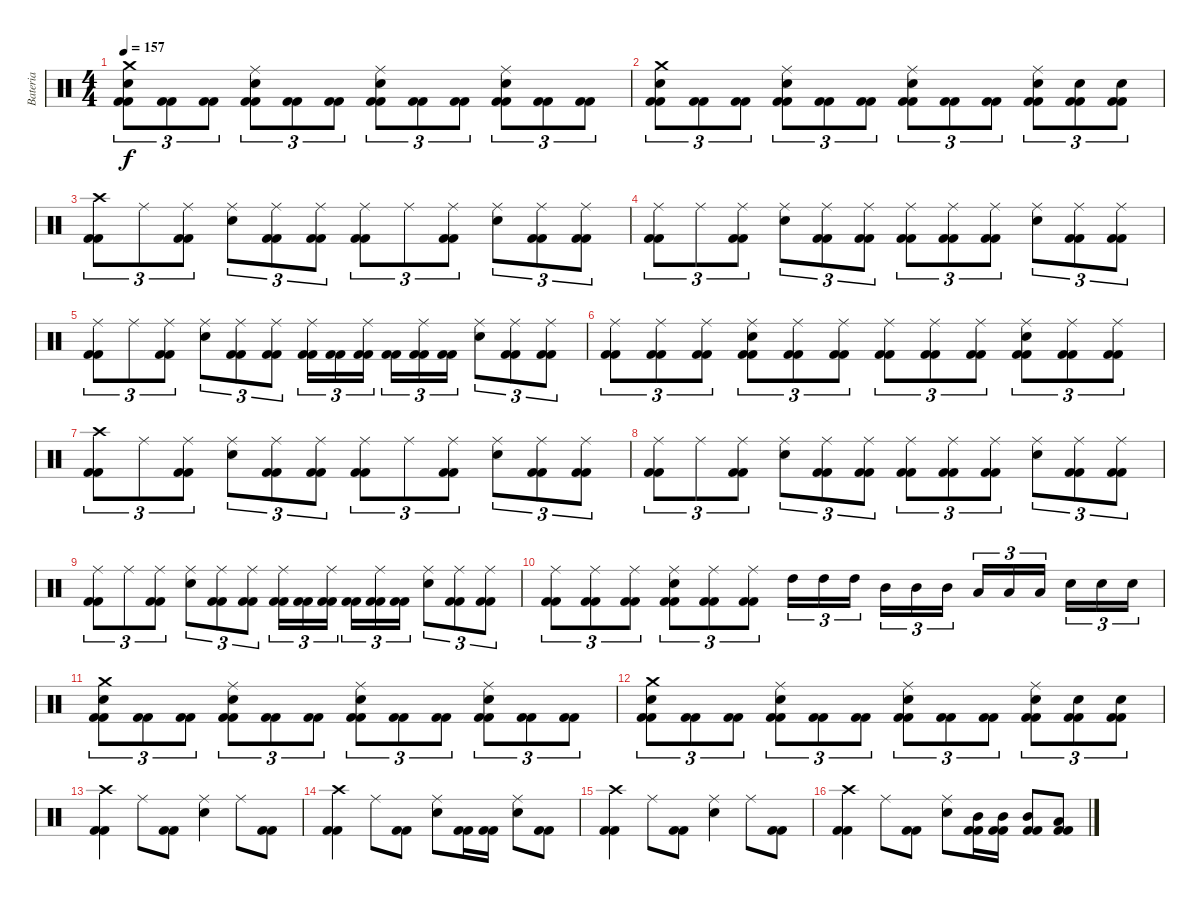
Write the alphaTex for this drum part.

\track ("Bateria" "Bateria") {instrument percussion}
\staff {score}
\articulation defaults
\ts (4 4)
\tempo 157
\clef neutral
\ks c
("Kick (hit) 2" "Kick (hit) 2" "Snare (hit) 2" "Crash medium (hit)").8{tu (3 2) dy f} ("Kick (hit) 2" "Kick (hit) 2").8{tu (3 2)} ("Kick (hit) 2" "Kick (hit) 2").8{tu (3 2)} ("Kick (hit) 2" "Kick (hit) 2" "Snare (hit) 2" "Ride (middle)").8{tu (3 2)} ("Kick (hit) 2" "Kick (hit) 2").8{tu (3 2)} ("Kick (hit) 2" "Kick (hit) 2").8{tu (3 2)} ("Kick (hit) 2" "Kick (hit) 2" "Snare (hit) 2" "Ride (middle)").8{tu (3 2)} ("Kick (hit) 2" "Kick (hit) 2").8{tu (3 2)} ("Kick (hit) 2" "Kick (hit) 2").8{tu (3 2)} ("Kick (hit) 2" "Kick (hit) 2" "Snare (hit) 2" "Ride (middle)").8{tu (3 2)} ("Kick (hit) 2" "Kick (hit) 2").8{tu (3 2)} ("Kick (hit) 2" "Kick (hit) 2").8{tu (3 2)} |
("Kick (hit) 2" "Kick (hit) 2" "Snare (hit) 2" "Crash medium (hit)").8{tu (3 2)} ("Kick (hit) 2" "Kick (hit) 2").8{tu (3 2)} ("Kick (hit) 2" "Kick (hit) 2").8{tu (3 2)} ("Kick (hit) 2" "Kick (hit) 2" "Snare (hit) 2" "Ride (middle)").8{tu (3 2)} ("Kick (hit) 2" "Kick (hit) 2").8{tu (3 2)} ("Kick (hit) 2" "Kick (hit) 2").8{tu (3 2)} ("Kick (hit) 2" "Kick (hit) 2" "Snare (hit) 2" "Ride (middle)").8{tu (3 2)} ("Kick (hit) 2" "Kick (hit) 2").8{tu (3 2)} ("Kick (hit) 2" "Kick (hit) 2").8{tu (3 2)} ("Kick (hit) 2" "Kick (hit) 2" "Snare (hit) 2" "Ride (middle)").8{tu (3 2)} ("Kick (hit) 2" "Kick (hit) 2" "Snare (hit) 2").8{tu (3 2)} ("Kick (hit) 2" "Kick (hit) 2" "Snare (hit) 2").8{tu (3 2)} |
("Kick (hit) 2" "Crash high (hit)" "Kick (hit) 2").8{tu (3 2)} "Ride (middle)".8{tu (3 2)} ("Kick (hit) 2" "Ride (middle)" "Kick (hit) 2").8{tu (3 2)} ("Ride (middle)" "Snare (hit) 2").8{tu (3 2)} ("Kick (hit) 2" "Ride (middle)" "Kick (hit) 2").8{tu (3 2)} ("Kick (hit) 2" "Ride (middle)" "Kick (hit) 2").8{tu (3 2)} ("Kick (hit) 2" "Ride (middle)" "Kick (hit) 2").8{tu (3 2)} "Ride (middle)".8{tu (3 2)} ("Kick (hit) 2" "Ride (middle)" "Kick (hit) 2").8{tu (3 2)} ("Ride (middle)" "Snare (hit) 2").8{tu (3 2)} ("Kick (hit) 2" "Ride (middle)" "Kick (hit) 2").8{tu (3 2)} ("Kick (hit) 2" "Ride (middle)" "Kick (hit) 2").8{tu (3 2)} |
("Kick (hit) 2" "Ride (middle)" "Kick (hit) 2").8{tu (3 2)} "Ride (middle)".8{tu (3 2)} ("Kick (hit) 2" "Ride (middle)" "Kick (hit) 2").8{tu (3 2)} ("Ride (middle)" "Snare (hit) 2").8{tu (3 2)} ("Kick (hit) 2" "Ride (middle)" "Kick (hit) 2").8{tu (3 2)} ("Kick (hit) 2" "Ride (middle)" "Kick (hit) 2").8{tu (3 2)} ("Kick (hit) 2" "Ride (middle)" "Kick (hit) 2").8{tu (3 2)} ("Kick (hit) 2" "Ride (middle)" "Kick (hit) 2").8{tu (3 2)} ("Kick (hit) 2" "Ride (middle)" "Kick (hit) 2").8{tu (3 2)} ("Ride (middle)" "Snare (hit) 2").8{tu (3 2)} ("Kick (hit) 2" "Ride (middle)" "Kick (hit) 2").8{tu (3 2)} ("Kick (hit) 2" "Ride (middle)" "Kick (hit) 2").8{tu (3 2)} |
("Kick (hit) 2" "Ride (middle)" "Kick (hit) 2").8{tu (3 2)} "Ride (middle)".8{tu (3 2)} ("Kick (hit) 2" "Ride (middle)" "Kick (hit) 2").8{tu (3 2)} ("Ride (middle)" "Snare (hit) 2").8{tu (3 2)} ("Kick (hit) 2" "Ride (middle)" "Kick (hit) 2").8{tu (3 2)} ("Kick (hit) 2" "Ride (middle)" "Kick (hit) 2").8{tu (3 2)} ("Kick (hit) 2" "Ride (middle)" "Kick (hit) 2").16{tu (3 2)} ("Kick (hit) 2" "Kick (hit) 2").16{tu (3 2)} ("Kick (hit) 2" "Ride (middle)" "Kick (hit) 2").16{tu (3 2)} ("Kick (hit) 2" "Kick (hit) 2").16{tu (3 2)} ("Kick (hit) 2" "Ride (middle)" "Kick (hit) 2").16{tu (3 2)} ("Kick (hit) 2" "Kick (hit) 2").16{tu (3 2)} ("Ride (middle)" "Snare (hit) 2").8{tu (3 2)} ("Kick (hit) 2" "Ride (middle)" "Kick (hit) 2").8{tu (3 2)} ("Kick (hit) 2" "Ride (middle)" "Kick (hit) 2").8{tu (3 2)} |
("Kick (hit) 2" "Ride (middle)" "Kick (hit) 2").8{tu (3 2)} ("Kick (hit) 2" "Ride (middle)" "Kick (hit) 2").8{tu (3 2)} ("Kick (hit) 2" "Ride (middle)" "Kick (hit) 2").8{tu (3 2)} ("Kick (hit) 2" "Ride (middle)" "Snare (hit) 2" "Kick (hit) 2").8{tu (3 2)} ("Kick (hit) 2" "Ride (middle)" "Kick (hit) 2").8{tu (3 2)} ("Kick (hit) 2" "Ride (middle)" "Kick (hit) 2").8{tu (3 2)} ("Kick (hit) 2" "Ride (middle)" "Kick (hit) 2").8{tu (3 2)} ("Kick (hit) 2" "Ride (middle)" "Kick (hit) 2").8{tu (3 2)} ("Kick (hit) 2" "Ride (middle)" "Kick (hit) 2").8{tu (3 2)} ("Kick (hit) 2" "Ride (middle)" "Snare (hit) 2" "Kick (hit) 2").8{tu (3 2)} ("Kick (hit) 2" "Ride (middle)" "Kick (hit) 2").8{tu (3 2)} ("Kick (hit) 2" "Ride (middle)" "Kick (hit) 2").8{tu (3 2)} |
("Kick (hit) 2" "Crash high (hit)" "Kick (hit) 2").8{tu (3 2)} "Ride (middle)".8{tu (3 2)} ("Kick (hit) 2" "Ride (middle)" "Kick (hit) 2").8{tu (3 2)} ("Ride (middle)" "Snare (hit) 2").8{tu (3 2)} ("Kick (hit) 2" "Ride (middle)" "Kick (hit) 2").8{tu (3 2)} ("Kick (hit) 2" "Ride (middle)" "Kick (hit) 2").8{tu (3 2)} ("Kick (hit) 2" "Ride (middle)" "Kick (hit) 2").8{tu (3 2)} "Ride (middle)".8{tu (3 2)} ("Kick (hit) 2" "Ride (middle)" "Kick (hit) 2").8{tu (3 2)} ("Ride (middle)" "Snare (hit) 2").8{tu (3 2)} ("Kick (hit) 2" "Ride (middle)" "Kick (hit) 2").8{tu (3 2)} ("Kick (hit) 2" "Ride (middle)" "Kick (hit) 2").8{tu (3 2)} |
("Kick (hit) 2" "Ride (middle)" "Kick (hit) 2").8{tu (3 2)} "Ride (middle)".8{tu (3 2)} ("Kick (hit) 2" "Ride (middle)" "Kick (hit) 2").8{tu (3 2)} ("Ride (middle)" "Snare (hit) 2").8{tu (3 2)} ("Kick (hit) 2" "Ride (middle)" "Kick (hit) 2").8{tu (3 2)} ("Kick (hit) 2" "Ride (middle)" "Kick (hit) 2").8{tu (3 2)} ("Kick (hit) 2" "Ride (middle)" "Kick (hit) 2").8{tu (3 2)} ("Kick (hit) 2" "Ride (middle)" "Kick (hit) 2").8{tu (3 2)} ("Kick (hit) 2" "Ride (middle)" "Kick (hit) 2").8{tu (3 2)} ("Ride (middle)" "Snare (hit) 2").8{tu (3 2)} ("Kick (hit) 2" "Ride (middle)" "Kick (hit) 2").8{tu (3 2)} ("Kick (hit) 2" "Ride (middle)" "Kick (hit) 2").8{tu (3 2)} |
("Kick (hit) 2" "Ride (middle)" "Kick (hit) 2").8{tu (3 2)} "Ride (middle)".8{tu (3 2)} ("Kick (hit) 2" "Ride (middle)" "Kick (hit) 2").8{tu (3 2)} ("Ride (middle)" "Snare (hit) 2").8{tu (3 2)} ("Kick (hit) 2" "Ride (middle)" "Kick (hit) 2").8{tu (3 2)} ("Kick (hit) 2" "Ride (middle)" "Kick (hit) 2").8{tu (3 2)} ("Kick (hit) 2" "Ride (middle)" "Kick (hit) 2").16{tu (3 2)} ("Kick (hit) 2" "Kick (hit) 2").16{tu (3 2)} ("Kick (hit) 2" "Ride (middle)" "Kick (hit) 2").16{tu (3 2)} ("Kick (hit) 2" "Kick (hit) 2").16{tu (3 2)} ("Kick (hit) 2" "Ride (middle)" "Kick (hit) 2").16{tu (3 2)} ("Kick (hit) 2" "Kick (hit) 2").16{tu (3 2)} ("Ride (middle)" "Snare (hit) 2").8{tu (3 2)} ("Kick (hit) 2" "Ride (middle)" "Kick (hit) 2").8{tu (3 2)} ("Kick (hit) 2" "Ride (middle)" "Kick (hit) 2").8{tu (3 2)} |
("Kick (hit) 2" "Ride (middle)" "Kick (hit) 2").8{tu (3 2)} ("Kick (hit) 2" "Ride (middle)" "Kick (hit) 2").8{tu (3 2)} ("Kick (hit) 2" "Ride (middle)" "Kick (hit) 2").8{tu (3 2)} ("Kick (hit) 2" "Ride (middle)" "Snare (hit) 2" "Kick (hit) 2").8{tu (3 2)} ("Kick (hit) 2" "Ride (middle)" "Kick (hit) 2").8{tu (3 2)} ("Kick (hit) 2" "Ride (middle)" "Kick (hit) 2").8{tu (3 2)} "High Tom (hit)".16{tu (3 2)} "High Tom (hit)".16{tu (3 2)} "High Tom (hit)".16{tu (3 2)} "Mid Tom (hit)".16{tu (3 2)} "Mid Tom (hit)".16{tu (3 2)} "Mid Tom (hit)".16{tu (3 2)} "Low Tom (hit)".16{tu (3 2)} "Low Tom (hit)".16{tu (3 2)} "Low Tom (hit)".16{tu (3 2)} "Snare (hit) 2".16{tu (3 2)} "Snare (hit) 2".16{tu (3 2)} "Snare (hit) 2".16{tu (3 2)} |
("Kick (hit) 2" "Kick (hit) 2" "Snare (hit) 2" "Crash medium (hit)").8{tu (3 2)} ("Kick (hit) 2" "Kick (hit) 2").8{tu (3 2)} ("Kick (hit) 2" "Kick (hit) 2").8{tu (3 2)} ("Kick (hit) 2" "Kick (hit) 2" "Snare (hit) 2" "Ride (middle)").8{tu (3 2)} ("Kick (hit) 2" "Kick (hit) 2").8{tu (3 2)} ("Kick (hit) 2" "Kick (hit) 2").8{tu (3 2)} ("Kick (hit) 2" "Kick (hit) 2" "Snare (hit) 2" "Ride (middle)").8{tu (3 2)} ("Kick (hit) 2" "Kick (hit) 2").8{tu (3 2)} ("Kick (hit) 2" "Kick (hit) 2").8{tu (3 2)} ("Kick (hit) 2" "Kick (hit) 2" "Snare (hit) 2" "Ride (middle)").8{tu (3 2)} ("Kick (hit) 2" "Kick (hit) 2").8{tu (3 2)} ("Kick (hit) 2" "Kick (hit) 2").8{tu (3 2)} |
("Kick (hit) 2" "Kick (hit) 2" "Snare (hit) 2" "Crash medium (hit)").8{tu (3 2)} ("Kick (hit) 2" "Kick (hit) 2").8{tu (3 2)} ("Kick (hit) 2" "Kick (hit) 2").8{tu (3 2)} ("Kick (hit) 2" "Kick (hit) 2" "Snare (hit) 2" "Ride (middle)").8{tu (3 2)} ("Kick (hit) 2" "Kick (hit) 2").8{tu (3 2)} ("Kick (hit) 2" "Kick (hit) 2").8{tu (3 2)} ("Kick (hit) 2" "Kick (hit) 2" "Snare (hit) 2" "Ride (middle)").8{tu (3 2)} ("Kick (hit) 2" "Kick (hit) 2").8{tu (3 2)} ("Kick (hit) 2" "Kick (hit) 2").8{tu (3 2)} ("Kick (hit) 2" "Kick (hit) 2" "Snare (hit) 2" "Ride (middle)").8{tu (3 2)} ("Kick (hit) 2" "Kick (hit) 2" "Snare (hit) 2").8{tu (3 2)} ("Kick (hit) 2" "Kick (hit) 2" "Snare (hit) 2").8{tu (3 2)} |
("Kick (hit) 2" "Kick (hit) 2" "Crash high (hit)").4 "Ride (middle)".8 ("Kick (hit) 2" "Kick (hit) 2").8 ("Snare (hit) 2" "Ride (middle)").4 "Ride (middle)".8 ("Kick (hit) 2" "Kick (hit) 2").8 |
("Kick (hit) 2" "Kick (hit) 2" "Crash high (hit)").4 "Ride (middle)".8 ("Kick (hit) 2" "Kick (hit) 2").8 ("Snare (hit) 2" "Ride (middle)").8 ("Kick (hit) 2" "Kick (hit) 2").16 ("Kick (hit) 2" "Kick (hit) 2").16 ("Snare (hit) 2" "Ride (middle)").8 ("Kick (hit) 2" "Kick (hit) 2").8 |
("Kick (hit) 2" "Kick (hit) 2" "Crash high (hit)").4 "Ride (middle)".8 ("Kick (hit) 2" "Kick (hit) 2").8 ("Snare (hit) 2" "Ride (middle)").4 "Ride (middle)".8 ("Kick (hit) 2" "Kick (hit) 2").8 |
("Kick (hit) 2" "Kick (hit) 2" "Crash high (hit)").4 "Ride (middle)".8 ("Kick (hit) 2" "Kick (hit) 2").8 ("Snare (hit) 2" "Ride (middle)").8 ("Kick (hit) 2" "Kick (hit) 2" "Mid Tom (hit)").16 ("Kick (hit) 2" "Kick (hit) 2" "Mid Tom (hit)").16 ("Kick (hit) 2" "Kick (hit) 2" "Mid Tom (hit)").8 ("Kick (hit) 2" "Kick (hit) 2" "Low Tom (hit)").8
